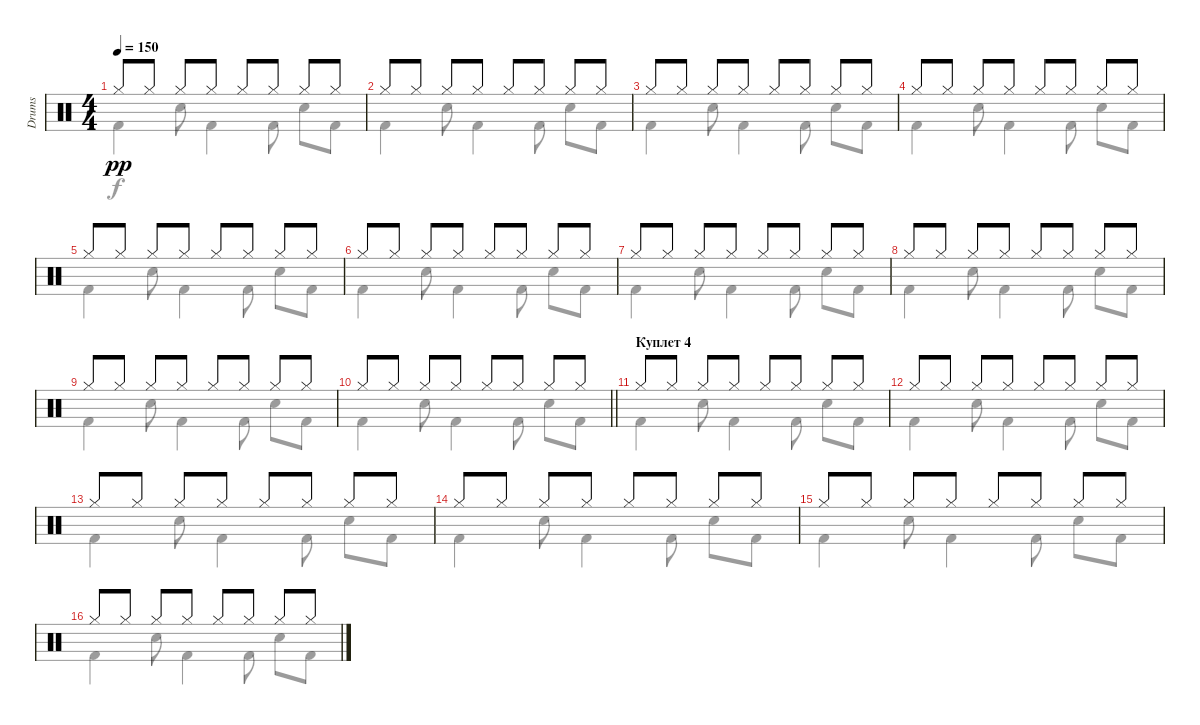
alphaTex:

\track ("Drums" "Drums") {instrument percussion}
\staff {score}
\articulation defaults
\voice
\ts (4 4)
\tempo 150
\clef neutral
\ks c "Hi-Hat (closed)".8{dy pp} "Hi-Hat (closed)".8 "Hi-Hat (closed)".8 "Hi-Hat (closed)".8 "Hi-Hat (closed)".8 "Hi-Hat (closed)".8 "Hi-Hat (closed)".8 "Hi-Hat (closed)".8
|
"Hi-Hat (closed)".8 "Hi-Hat (closed)".8 "Hi-Hat (closed)".8 "Hi-Hat (closed)".8 "Hi-Hat (closed)".8 "Hi-Hat (closed)".8 "Hi-Hat (closed)".8 "Hi-Hat (closed)".8 |
"Hi-Hat (closed)".8 "Hi-Hat (closed)".8 "Hi-Hat (closed)".8 "Hi-Hat (closed)".8 "Hi-Hat (closed)".8 "Hi-Hat (closed)".8 "Hi-Hat (closed)".8 "Hi-Hat (closed)".8 |
"Hi-Hat (closed)".8 "Hi-Hat (closed)".8 "Hi-Hat (closed)".8 "Hi-Hat (closed)".8 "Hi-Hat (closed)".8 "Hi-Hat (closed)".8 "Hi-Hat (closed)".8 "Hi-Hat (closed)".8 |
"Hi-Hat (closed)".8 "Hi-Hat (closed)".8 "Hi-Hat (closed)".8 "Hi-Hat (closed)".8 "Hi-Hat (closed)".8 "Hi-Hat (closed)".8 "Hi-Hat (closed)".8 "Hi-Hat (closed)".8 |
"Hi-Hat (closed)".8 "Hi-Hat (closed)".8 "Hi-Hat (closed)".8 "Hi-Hat (closed)".8 "Hi-Hat (closed)".8 "Hi-Hat (closed)".8 "Hi-Hat (closed)".8 "Hi-Hat (closed)".8 |
"Hi-Hat (closed)".8 "Hi-Hat (closed)".8 "Hi-Hat (closed)".8 "Hi-Hat (closed)".8 "Hi-Hat (closed)".8 "Hi-Hat (closed)".8 "Hi-Hat (closed)".8 "Hi-Hat (closed)".8 |
"Hi-Hat (closed)".8 "Hi-Hat (closed)".8 "Hi-Hat (closed)".8 "Hi-Hat (closed)".8 "Hi-Hat (closed)".8 "Hi-Hat (closed)".8 "Hi-Hat (closed)".8 "Hi-Hat (closed)".8 |
"Hi-Hat (closed)".8 "Hi-Hat (closed)".8 "Hi-Hat (closed)".8 "Hi-Hat (closed)".8 "Hi-Hat (closed)".8 "Hi-Hat (closed)".8 "Hi-Hat (closed)".8 "Hi-Hat (closed)".8 |
\barLineRight lightlight "Hi-Hat (closed)".8 "Hi-Hat (closed)".8 "Hi-Hat (closed)".8 "Hi-Hat (closed)".8 "Hi-Hat (closed)".8 "Hi-Hat (closed)".8 "Hi-Hat (closed)".8 "Hi-Hat (closed)".8
|
\section ("" "Куплет 4")
"Hi-Hat (closed)".8 "Hi-Hat (closed)".8 "Hi-Hat (closed)".8 "Hi-Hat (closed)".8 "Hi-Hat (closed)".8 "Hi-Hat (closed)".8 "Hi-Hat (closed)".8 "Hi-Hat (closed)".8 |
"Hi-Hat (closed)".8 "Hi-Hat (closed)".8 "Hi-Hat (closed)".8 "Hi-Hat (closed)".8 "Hi-Hat (closed)".8 "Hi-Hat (closed)".8 "Hi-Hat (closed)".8 "Hi-Hat (closed)".8 |
"Hi-Hat (closed)".8 "Hi-Hat (closed)".8 "Hi-Hat (closed)".8 "Hi-Hat (closed)".8 "Hi-Hat (closed)".8 "Hi-Hat (closed)".8 "Hi-Hat (closed)".8 "Hi-Hat (closed)".8 |
"Hi-Hat (closed)".8 "Hi-Hat (closed)".8 "Hi-Hat (closed)".8 "Hi-Hat (closed)".8 "Hi-Hat (closed)".8 "Hi-Hat (closed)".8 "Hi-Hat (closed)".8 "Hi-Hat (closed)".8 |
"Hi-Hat (closed)".8 "Hi-Hat (closed)".8 "Hi-Hat (closed)".8 "Hi-Hat (closed)".8 "Hi-Hat (closed)".8 "Hi-Hat (closed)".8 "Hi-Hat (closed)".8 "Hi-Hat (closed)".8 |
"Hi-Hat (closed)".8 "Hi-Hat (closed)".8 "Hi-Hat (closed)".8 "Hi-Hat (closed)".8 "Hi-Hat (closed)".8 "Hi-Hat (closed)".8 "Hi-Hat (closed)".8 "Hi-Hat (closed)".8
\voice
\clef neutral
\ottava regular
\simile none
\ks c "Kick (hit) 2".4{dy f} "Electric Snare (hit)".8 "Kick (hit) 2".4 "Kick (hit) 2".8 "Electric Snare (hit)".8 "Kick (hit) 2".8
|
"Kick (hit) 2".4 "Electric Snare (hit)".8 "Kick (hit) 2".4 "Kick (hit) 2".8 "Electric Snare (hit)".8 "Kick (hit) 2".8 |
"Kick (hit) 2".4 "Electric Snare (hit)".8 "Kick (hit) 2".4 "Kick (hit) 2".8 "Electric Snare (hit)".8 "Kick (hit) 2".8 |
"Kick (hit) 2".4 "Electric Snare (hit)".8 "Kick (hit) 2".4 "Kick (hit) 2".8 "Electric Snare (hit)".8 "Kick (hit) 2".8 |
"Kick (hit) 2".4 "Electric Snare (hit)".8 "Kick (hit) 2".4 "Kick (hit) 2".8 "Electric Snare (hit)".8 "Kick (hit) 2".8 |
"Kick (hit) 2".4 "Electric Snare (hit)".8 "Kick (hit) 2".4 "Kick (hit) 2".8 "Electric Snare (hit)".8 "Kick (hit) 2".8 |
"Kick (hit) 2".4 "Electric Snare (hit)".8 "Kick (hit) 2".4 "Kick (hit) 2".8 "Electric Snare (hit)".8 "Kick (hit) 2".8 |
"Kick (hit) 2".4 "Electric Snare (hit)".8 "Kick (hit) 2".4 "Kick (hit) 2".8 "Electric Snare (hit)".8 "Kick (hit) 2".8 |
"Kick (hit) 2".4 "Electric Snare (hit)".8 "Kick (hit) 2".4 "Kick (hit) 2".8 "Electric Snare (hit)".8 "Kick (hit) 2".8 |
\barLineRight lightlight "Kick (hit) 2".4 "Electric Snare (hit)".8 "Kick (hit) 2".4 "Kick (hit) 2".8 "Electric Snare (hit)".8 "Kick (hit) 2".8
|
"Kick (hit) 2".4 "Electric Snare (hit)".8 "Kick (hit) 2".4 "Kick (hit) 2".8 "Electric Snare (hit)".8 "Kick (hit) 2".8 |
"Kick (hit) 2".4 "Electric Snare (hit)".8 "Kick (hit) 2".4 "Kick (hit) 2".8 "Electric Snare (hit)".8 "Kick (hit) 2".8 |
"Kick (hit) 2".4 "Electric Snare (hit)".8 "Kick (hit) 2".4 "Kick (hit) 2".8 "Electric Snare (hit)".8 "Kick (hit) 2".8 |
"Kick (hit) 2".4 "Electric Snare (hit)".8 "Kick (hit) 2".4 "Kick (hit) 2".8 "Electric Snare (hit)".8 "Kick (hit) 2".8 |
"Kick (hit) 2".4 "Electric Snare (hit)".8 "Kick (hit) 2".4 "Kick (hit) 2".8 "Electric Snare (hit)".8 "Kick (hit) 2".8 |
"Kick (hit) 2".4 "Electric Snare (hit)".8 "Kick (hit) 2".4 "Kick (hit) 2".8 "Electric Snare (hit)".8 "Kick (hit) 2".8
